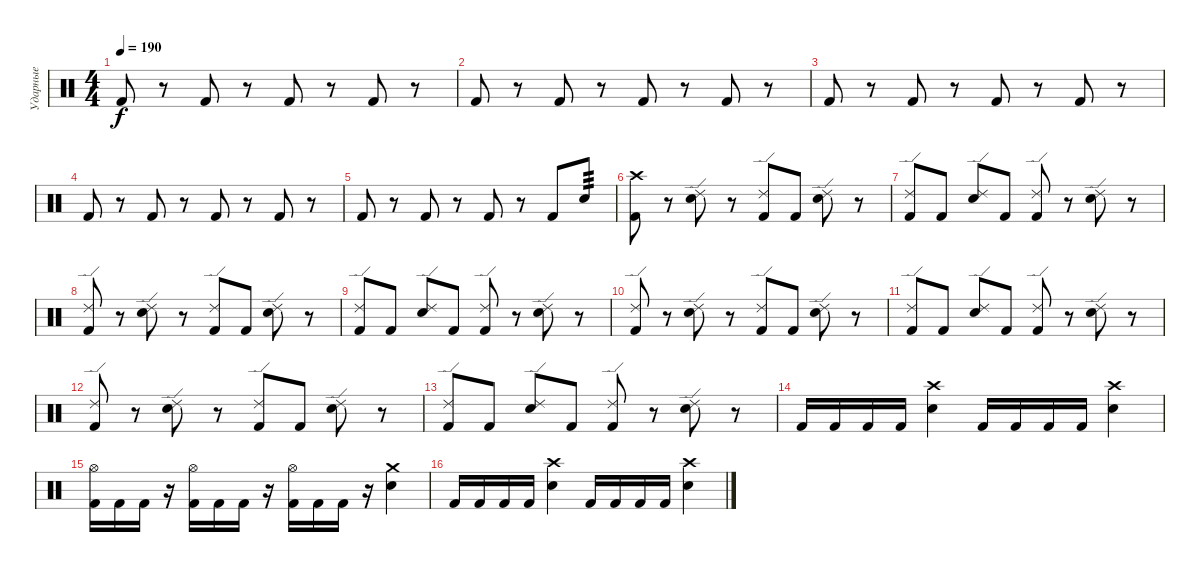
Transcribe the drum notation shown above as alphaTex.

\track ("Ударные" "Ударные") {instrument percussion}
\staff {score}
\articulation defaults
\ts (4 4)
\tempo 190
\clef neutral
\ks c "Kick (hit) 2".8{dy f}
r.8 "Kick (hit) 2".8 r.8 "Kick (hit) 2".8 r.8 "Kick (hit) 2".8 r.8 |
"Kick (hit) 2".8 r.8 "Kick (hit) 2".8 r.8 "Kick (hit) 2".8 r.8 "Kick (hit) 2".8 r.8 |
"Kick (hit) 2".8 r.8 "Kick (hit) 2".8 r.8 "Kick (hit) 2".8 r.8 "Kick (hit) 2".8 r.8 |
"Kick (hit) 2".8 r.8 "Kick (hit) 2".8 r.8 "Kick (hit) 2".8 r.8 "Kick (hit) 2".8 r.8 |
"Kick (hit) 2".8 r.8 "Kick (hit) 2".8 r.8 "Kick (hit) 2".8 r.8 "Kick (hit) 2".8 "Snare (hit) 2".8{tp 3} |
("Crash high (hit)" "Kick (hit) 2").8 r.8 ("Ride (edge) 2" "Snare (hit) 2").8 r.8 ("Ride (edge) 2" "Kick (hit) 2").8 "Kick (hit) 2".8 ("Ride (edge) 2" "Snare (hit) 2").8 r.8 |
("Ride (edge) 2" "Kick (hit) 2").8 "Kick (hit) 2".8 ("Ride (edge) 2" "Snare (hit) 2").8 "Kick (hit) 2".8 ("Ride (edge) 2" "Kick (hit) 2").8 r.8 ("Ride (edge) 2" "Snare (hit) 2").8 r.8 |
("Ride (edge) 2" "Kick (hit) 2").8 r.8 ("Ride (edge) 2" "Snare (hit) 2").8 r.8 ("Ride (edge) 2" "Kick (hit) 2").8 "Kick (hit) 2".8 ("Ride (edge) 2" "Snare (hit) 2").8 r.8 |
("Ride (edge) 2" "Kick (hit) 2").8 "Kick (hit) 2".8 ("Ride (edge) 2" "Snare (hit) 2").8 "Kick (hit) 2".8 ("Ride (edge) 2" "Kick (hit) 2").8 r.8 ("Ride (edge) 2" "Snare (hit) 2").8 r.8 |
("Ride (edge) 2" "Kick (hit) 2").8 r.8 ("Ride (edge) 2" "Snare (hit) 2").8 r.8 ("Ride (edge) 2" "Kick (hit) 2").8 "Kick (hit) 2".8 ("Ride (edge) 2" "Snare (hit) 2").8 r.8 |
("Ride (edge) 2" "Kick (hit) 2").8 "Kick (hit) 2".8 ("Ride (edge) 2" "Snare (hit) 2").8 "Kick (hit) 2".8 ("Ride (edge) 2" "Kick (hit) 2").8 r.8 ("Ride (edge) 2" "Snare (hit) 2").8 r.8 |
("Ride (edge) 2" "Kick (hit) 2").8 r.8 ("Ride (edge) 2" "Snare (hit) 2").8 r.8 ("Ride (edge) 2" "Kick (hit) 2").8 "Kick (hit) 2".8 ("Ride (edge) 2" "Snare (hit) 2").8 r.8 |
("Ride (edge) 2" "Kick (hit) 2").8 "Kick (hit) 2".8 ("Ride (edge) 2" "Snare (hit) 2").8 "Kick (hit) 2".8 ("Ride (edge) 2" "Kick (hit) 2").8 r.8 ("Ride (edge) 2" "Snare (hit) 2").8 r.8 |
"Kick (hit) 2".16 "Kick (hit) 2".16 "Kick (hit) 2".16 "Kick (hit) 2".16 ("Crash high (hit)" "Snare (hit) 2").4 "Kick (hit) 2".16 "Kick (hit) 2".16 "Kick (hit) 2".16 "Kick (hit) 2".16 ("Crash high (hit)" "Snare (hit) 2").4 |
("Hi-Hat (open)" "Kick (hit) 2").16 "Kick (hit) 2".16 "Kick (hit) 2".16 r.16 ("Hi-Hat (open)" "Kick (hit) 2").16 "Kick (hit) 2".16 "Kick (hit) 2".16 r.16 ("Hi-Hat (open)" "Kick (hit) 2").16 "Kick (hit) 2".16 "Kick (hit) 2".16 r.16 ("Crash medium (hit)" "Snare (hit) 2").4 |
"Kick (hit) 2".16 "Kick (hit) 2".16 "Kick (hit) 2".16 "Kick (hit) 2".16 ("Crash high (hit)" "Snare (hit) 2").4 "Kick (hit) 2".16 "Kick (hit) 2".16 "Kick (hit) 2".16 "Kick (hit) 2".16 ("Crash high (hit)" "Snare (hit) 2").4
